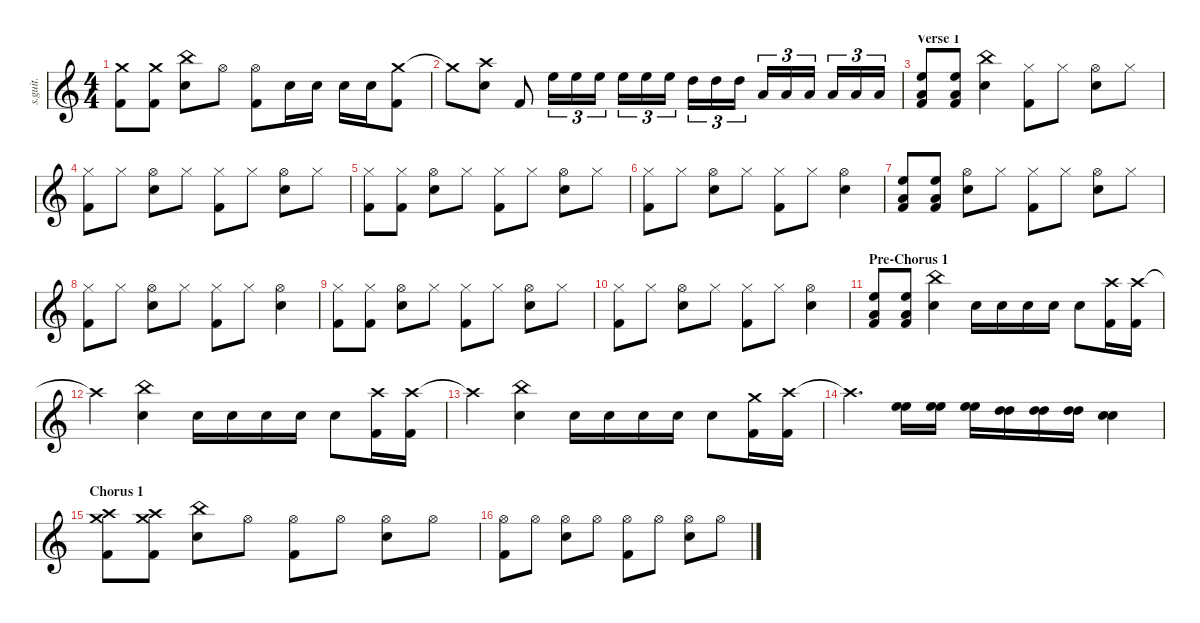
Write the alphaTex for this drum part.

\defaultSystemsLayout 4
\hideDynamics
\bracketExtendMode nobrackets
\track ("Mountain" "s.guit.") {instrument percussion}
\staff {score}
\articulation defaults
\ts (4 4)
\tempo (88 hide)
\clef g2
\ks c
("Crash medium (hit)" "Kick (hit) 2").8{dy f} ("Crash medium (hit)" "Kick (hit) 2").8 ("China (hit)" "Snare (hit) 2").8 "Hi-Hat (open)".8 ("Hi-Hat (open)" "Kick (hit) 2").8 "Snare (hit) 2".16 "Snare (hit) 2".16 "Snare (hit) 2".16 "Snare (hit) 2".16 ("Crash medium (hit)" "Kick (hit) 2").8 |
"Crash medium (hit)"{t}.8 ("Crash high (hit)" "Snare (hit) 2").8 "Kick (hit) 2".8 "High Floor Tom (hit)".16{tu (3 2)} "High Floor Tom (hit)".16{tu (3 2)} "High Floor Tom (hit)".16{tu (3 2)} "High Floor Tom (hit)".16{tu (3 2)} "High Floor Tom (hit)".16{tu (3 2)} "High Floor Tom (hit)".16{tu (3 2)} "High Tom (hit)".16{tu (3 2)} "High Tom (hit)".16{tu (3 2)} "High Tom (hit)".16{tu (3 2)} "Low Tom (hit)".16{tu (3 2)} "Low Tom (hit)".16{tu (3 2)} "Low Tom (hit)".16{tu (3 2)} "Low Tom (hit)".16{tu (3 2)} "Low Tom (hit)".16{tu (3 2)} "Low Tom (hit)".16{tu (3 2)} |
\section ("" "Verse 1")
("High Floor Tom (hit)" "Low Tom (hit)" "Kick (hit) 2").8 ("High Floor Tom (hit)" "Low Tom (hit)" "Kick (hit) 2").8 ("China (hit)" "Snare (hit) 2").4 ("Hi-Hat (closed)" "Kick (hit) 2").8 "Hi-Hat (closed)".8 ("Hi-Hat (open)" "Snare (hit) 2").8 "Hi-Hat (closed)".8 |
("Hi-Hat (closed)" "Kick (hit) 2").8 "Hi-Hat (closed)".8 ("Hi-Hat (open)" "Snare (hit) 2").8 "Hi-Hat (closed)".8 ("Hi-Hat (closed)" "Kick (hit) 2").8 "Hi-Hat (closed)".8 ("Hi-Hat (open)" "Snare (hit) 2").8 "Hi-Hat (closed)".8 |
("Hi-Hat (closed)" "Kick (hit) 2").8 ("Hi-Hat (closed)" "Kick (hit) 2").8 ("Hi-Hat (open)" "Snare (hit) 2").8 "Hi-Hat (closed)".8 ("Hi-Hat (closed)" "Kick (hit) 2").8 "Hi-Hat (closed)".8 ("Hi-Hat (open)" "Snare (hit) 2").8 "Hi-Hat (closed)".8 |
("Hi-Hat (closed)" "Kick (hit) 2").8 "Hi-Hat (closed)".8 ("Hi-Hat (open)" "Snare (hit) 2").8 "Hi-Hat (closed)".8 ("Hi-Hat (closed)" "Kick (hit) 2").8 "Hi-Hat (closed)".8 ("Hi-Hat (open)" "Snare (hit) 2").4 |
("High Floor Tom (hit)" "Low Tom (hit)" "Kick (hit) 2").8 ("High Floor Tom (hit)" "Low Tom (hit)" "Kick (hit) 2").8 ("Hi-Hat (open)" "Snare (hit) 2").8 "Hi-Hat (closed)".8 ("Hi-Hat (closed)" "Kick (hit) 2").8 "Hi-Hat (closed)".8 ("Hi-Hat (open)" "Snare (hit) 2").8 "Hi-Hat (closed)".8 |
("Hi-Hat (closed)" "Kick (hit) 2").8 "Hi-Hat (closed)".8 ("Hi-Hat (open)" "Snare (hit) 2").8 "Hi-Hat (closed)".8 ("Hi-Hat (closed)" "Kick (hit) 2").8 "Hi-Hat (closed)".8 ("Hi-Hat (open)" "Snare (hit) 2").4 |
("Hi-Hat (closed)" "Kick (hit) 2").8 ("Hi-Hat (closed)" "Kick (hit) 2").8 ("Hi-Hat (open)" "Snare (hit) 2").8 "Hi-Hat (closed)".8 ("Hi-Hat (closed)" "Kick (hit) 2").8 "Hi-Hat (closed)".8 ("Hi-Hat (open)" "Snare (hit) 2").8 "Hi-Hat (closed)".8 |
("Hi-Hat (closed)" "Kick (hit) 2").8 "Hi-Hat (closed)".8 ("Hi-Hat (open)" "Snare (hit) 2").8 "Hi-Hat (closed)".8 ("Hi-Hat (closed)" "Kick (hit) 2").8 "Hi-Hat (closed)".8 ("Hi-Hat (open)" "Snare (hit) 2").4 |
\section ("" "Pre-Chorus 1")
("High Floor Tom (hit)" "Low Tom (hit)" "Kick (hit) 2").8 ("High Floor Tom (hit)" "Low Tom (hit)" "Kick (hit) 2").8 ("China (hit)" "Snare (hit) 2").4 "Snare (hit) 2".16 "Snare (hit) 2".16 "Snare (hit) 2".16 "Snare (hit) 2".16 "Snare (hit) 2".8 ("Crash high (hit)" "Kick (hit) 2").16 ("Crash high (hit)" "Kick (hit) 2").16 |
"Crash high (hit)"{t}.4 ("China (hit)" "Snare (hit) 2").4 "Snare (hit) 2".16 "Snare (hit) 2".16 "Snare (hit) 2".16 "Snare (hit) 2".16 "Snare (hit) 2".8 ("Crash high (hit)" "Kick (hit) 2").16 ("Crash high (hit)" "Kick (hit) 2").16 |
"Crash high (hit)"{t}.4 ("China (hit)" "Snare (hit) 2").4 "Snare (hit) 2".16 "Snare (hit) 2".16 "Snare (hit) 2".16 "Snare (hit) 2".16 "Snare (hit) 2".8 ("Crash medium (hit)" "Kick (hit) 2").16 ("Crash high (hit)" "Kick (hit) 2").16 |
"Crash high (hit)"{t}.4{d} ("High Floor Tom (hit)" "High Floor Tom (hit)").16 ("High Floor Tom (hit)" "High Floor Tom (hit)").16 ("High Floor Tom (hit)" "High Floor Tom (hit)").16 ("High Tom (hit)" "High Tom (hit)").16 ("High Tom (hit)" "High Tom (hit)").16 ("High Tom (hit)" "High Tom (hit)").16 ("Snare (hit) 2" "Snare (hit) 2").4{bu 30} |
\section ("" "Chorus 1")
("Crash medium (hit)" "Crash high (hit)" "Kick (hit) 2").8 ("Crash medium (hit)" "Crash high (hit)" "Kick (hit) 2").8 ("China (hit)" "Snare (hit) 2").8 "Hi-Hat (open)".8 ("Hi-Hat (open)" "Kick (hit) 2").8 "Hi-Hat (open)".8 ("Hi-Hat (open)" "Snare (hit) 2").8 "Hi-Hat (open)".8 |
("Hi-Hat (open)" "Kick (hit) 2").8 "Hi-Hat (open)".8 ("Hi-Hat (open)" "Snare (hit) 2").8 "Hi-Hat (open)".8 ("Hi-Hat (open)" "Kick (hit) 2").8 "Hi-Hat (open)".8 ("Hi-Hat (open)" "Snare (hit) 2").8 "Hi-Hat (open)".8
